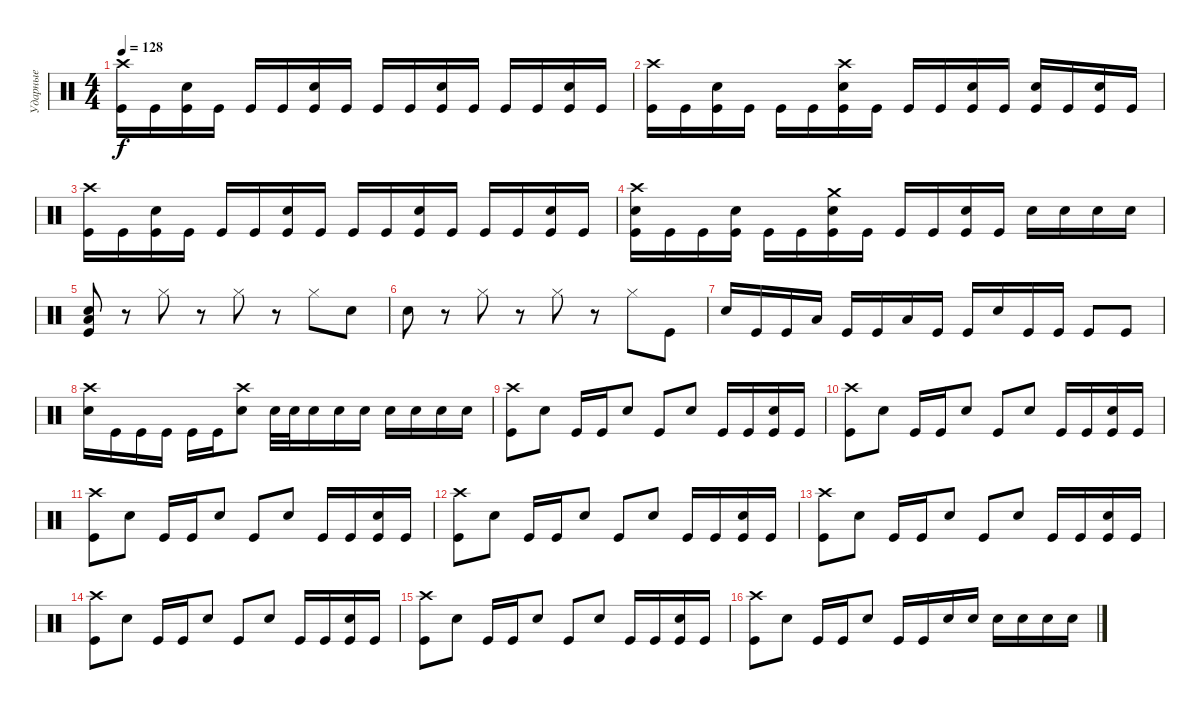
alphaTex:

\track ("Ударные" "Ударные") {instrument percussion}
\staff {score}
\articulation defaults
\ts (4 4)
\tempo 128
\clef neutral
\ks c
("Crash high (hit)" "Kick (hit)").16{dy f} "Kick (hit)".16 ("Electric Snare (hit)" "Kick (hit)").16 "Kick (hit)".16 "Kick (hit)".16 "Kick (hit)".16 ("Electric Snare (hit)" "Kick (hit)").16 "Kick (hit)".16 "Kick (hit)".16 "Kick (hit)".16 ("Electric Snare (hit)" "Kick (hit)").16 "Kick (hit)".16 "Kick (hit)".16 "Kick (hit)".16 ("Electric Snare (hit)" "Kick (hit)").16 "Kick (hit)".16 |
("Crash high (hit)" "Kick (hit)").16 "Kick (hit)".16 ("Electric Snare (hit)" "Kick (hit)").16 "Kick (hit)".16 "Kick (hit)".16 "Kick (hit)".16 ("Crash high (hit)" "Electric Snare (hit)" "Kick (hit)").16 "Kick (hit)".16 "Kick (hit)".16 "Kick (hit)".16 ("Electric Snare (hit)" "Kick (hit)").16 "Kick (hit)".16 ("Electric Snare (hit)" "Kick (hit)").16 "Kick (hit)".16 ("Electric Snare (hit)" "Kick (hit)").16 "Kick (hit)".16 |
("Crash high (hit)" "Kick (hit)").16 "Kick (hit)".16 ("Electric Snare (hit)" "Kick (hit)").16 "Kick (hit)".16 "Kick (hit)".16 "Kick (hit)".16 ("Electric Snare (hit)" "Kick (hit)").16 "Kick (hit)".16 "Kick (hit)".16 "Kick (hit)".16 ("Electric Snare (hit)" "Kick (hit)").16 "Kick (hit)".16 "Kick (hit)".16 "Kick (hit)".16 ("Electric Snare (hit)" "Kick (hit)").16 "Kick (hit)".16 |
("Crash high (hit)" "Electric Snare (hit)" "Kick (hit)").16 "Kick (hit)".16 "Kick (hit)".16 ("Electric Snare (hit)" "Kick (hit)").16 "Kick (hit)".16 "Kick (hit)".16 ("Crash medium (hit)" "Electric Snare (hit)" "Kick (hit)").16 "Kick (hit)".16 "Kick (hit)".16 "Kick (hit)".16 ("Electric Snare (hit)" "Kick (hit)").16 "Kick (hit)".16 "Electric Snare (hit)".16 "Electric Snare (hit)".16 "Electric Snare (hit)".16 "Electric Snare (hit)".16 |
("Electric Snare (hit)" "Low Tom (hit)" "Kick (hit)").8 r.8 "Hi-Hat (closed)".8 r.8 "Hi-Hat (closed)".8 r.8 "Hi-Hat (closed)".8 "Electric Snare (hit)".8 |
"Electric Snare (hit)".8 r.8 "Hi-Hat (closed)".8 r.8 "Hi-Hat (closed)".8 r.8 "Hi-Hat (closed)".8 "Kick (hit)".8 |
"Electric Snare (hit)".16 "Kick (hit)".16 "Kick (hit)".16 "Low Tom (hit)".16 "Kick (hit)".16 "Kick (hit)".16 "Low Tom (hit)".16 "Kick (hit)".16 "Kick (hit)".16 "Electric Snare (hit)".16 "Kick (hit)".16 "Kick (hit)".16 "Kick (hit)".8 "Kick (hit)".8 |
("Crash high (hit)" "Electric Snare (hit)").16 "Kick (hit)".16 "Kick (hit)".16 "Kick (hit)".16 "Kick (hit)".16 "Kick (hit)".16 ("Crash high (hit)" "Electric Snare (hit)").8 "Electric Snare (hit)".32 "Electric Snare (hit)".32 "Electric Snare (hit)".16 "Electric Snare (hit)".16 "Electric Snare (hit)".16 "Electric Snare (hit)".16 "Electric Snare (hit)".16 "Electric Snare (hit)".16 "Electric Snare (hit)".16 |
("Crash high (hit)" "Kick (hit)").8 "Electric Snare (hit)".8 "Kick (hit)".16 "Kick (hit)".16 "Electric Snare (hit)".8 "Kick (hit)".8 "Electric Snare (hit)".8 "Kick (hit)".16 "Kick (hit)".16 ("Electric Snare (hit)" "Kick (hit)").16 "Kick (hit)".16 |
("Crash high (hit)" "Kick (hit)").8 "Electric Snare (hit)".8 "Kick (hit)".16 "Kick (hit)".16 "Electric Snare (hit)".8 "Kick (hit)".8 "Electric Snare (hit)".8 "Kick (hit)".16 "Kick (hit)".16 ("Electric Snare (hit)" "Kick (hit)").16 "Kick (hit)".16 |
("Crash high (hit)" "Kick (hit)").8 "Electric Snare (hit)".8 "Kick (hit)".16 "Kick (hit)".16 "Electric Snare (hit)".8 "Kick (hit)".8 "Electric Snare (hit)".8 "Kick (hit)".16 "Kick (hit)".16 ("Electric Snare (hit)" "Kick (hit)").16 "Kick (hit)".16 |
("Crash high (hit)" "Kick (hit)").8 "Electric Snare (hit)".8 "Kick (hit)".16 "Kick (hit)".16 "Electric Snare (hit)".8 "Kick (hit)".8 "Electric Snare (hit)".8 "Kick (hit)".16 "Kick (hit)".16 ("Electric Snare (hit)" "Kick (hit)").16 "Kick (hit)".16 |
("Crash high (hit)" "Kick (hit)").8 "Electric Snare (hit)".8 "Kick (hit)".16 "Kick (hit)".16 "Electric Snare (hit)".8 "Kick (hit)".8 "Electric Snare (hit)".8 "Kick (hit)".16 "Kick (hit)".16 ("Electric Snare (hit)" "Kick (hit)").16 "Kick (hit)".16 |
("Crash high (hit)" "Kick (hit)").8 "Electric Snare (hit)".8 "Kick (hit)".16 "Kick (hit)".16 "Electric Snare (hit)".8 "Kick (hit)".8 "Electric Snare (hit)".8 "Kick (hit)".16 "Kick (hit)".16 ("Electric Snare (hit)" "Kick (hit)").16 "Kick (hit)".16 |
("Crash high (hit)" "Kick (hit)").8 "Electric Snare (hit)".8 "Kick (hit)".16 "Kick (hit)".16 "Electric Snare (hit)".8 "Kick (hit)".8 "Electric Snare (hit)".8 "Kick (hit)".16 "Kick (hit)".16 ("Electric Snare (hit)" "Kick (hit)").16 "Kick (hit)".16 |
("Crash high (hit)" "Kick (hit)").8 "Electric Snare (hit)".8 "Kick (hit)".16 "Kick (hit)".16 "Electric Snare (hit)".8 "Kick (hit)".16 "Kick (hit)".16 "Electric Snare (hit)".16 "Electric Snare (hit)".16 "Electric Snare (hit)".16 "Electric Snare (hit)".16 "Electric Snare (hit)".16 "Electric Snare (hit)".16
